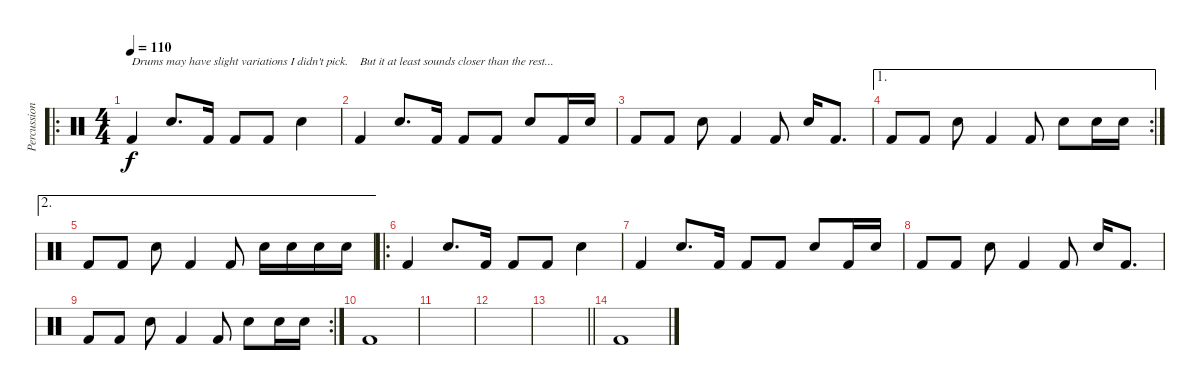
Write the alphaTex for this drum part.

\track ("Percussion" "Percussion") {instrument percussion}
\staff {score}
\articulation defaults
\ro
\ts (4 4)
\tempo 110
\clef neutral
\ks c "Kick (hit) 2".4{txt "Drums may have slight variations I didn't pick." dy f} "Snare (hit) 2".8{d} "Kick (hit) 2".16 "Kick (hit) 2".8 "Kick (hit) 2".8 "Snare (hit) 2".4
|
"Kick (hit) 2".4{txt "But it at least sounds closer than the rest..."} "Snare (hit) 2".8{d} "Kick (hit) 2".16 "Kick (hit) 2".8 "Kick (hit) 2".8 "Snare (hit) 2".8 "Kick (hit) 2".16 "Snare (hit) 2".16 |
"Kick (hit) 2".8 "Kick (hit) 2".8 "Snare (hit) 2".8 "Kick (hit) 2".4 "Kick (hit) 2".8 "Snare (hit) 2".16 "Kick (hit) 2".8{d} |
\ae 1
\rc 2 "Kick (hit) 2".8 "Kick (hit) 2".8 "Snare (hit) 2".8 "Kick (hit) 2".4 "Kick (hit) 2".8 "Snare (hit) 2".8 "Snare (hit) 2".16 "Snare (hit) 2".16
|
\ae 2 "Kick (hit) 2".8 "Kick (hit) 2".8 "Snare (hit) 2".8 "Kick (hit) 2".4 "Kick (hit) 2".8 "Snare (hit) 2".16 "Snare (hit) 2".16 "Snare (hit) 2".16 "Snare (hit) 2".16
|
\ro "Kick (hit) 2".4 "Snare (hit) 2".8{d} "Kick (hit) 2".16 "Kick (hit) 2".8 "Kick (hit) 2".8 "Snare (hit) 2".4
|
"Kick (hit) 2".4 "Snare (hit) 2".8{d} "Kick (hit) 2".16 "Kick (hit) 2".8 "Kick (hit) 2".8 "Snare (hit) 2".8 "Kick (hit) 2".16 "Snare (hit) 2".16 |
"Kick (hit) 2".8 "Kick (hit) 2".8 "Snare (hit) 2".8 "Kick (hit) 2".4 "Kick (hit) 2".8 "Snare (hit) 2".16 "Kick (hit) 2".8{d} |
\rc 2 "Kick (hit) 2".8 "Kick (hit) 2".8 "Snare (hit) 2".8 "Kick (hit) 2".4 "Kick (hit) 2".8 "Snare (hit) 2".8 "Snare (hit) 2".16 "Snare (hit) 2".16
|
"Kick (hit) 2".1 |
|
|
\barLineRight lightlight
|
"Kick (hit) 2".1
